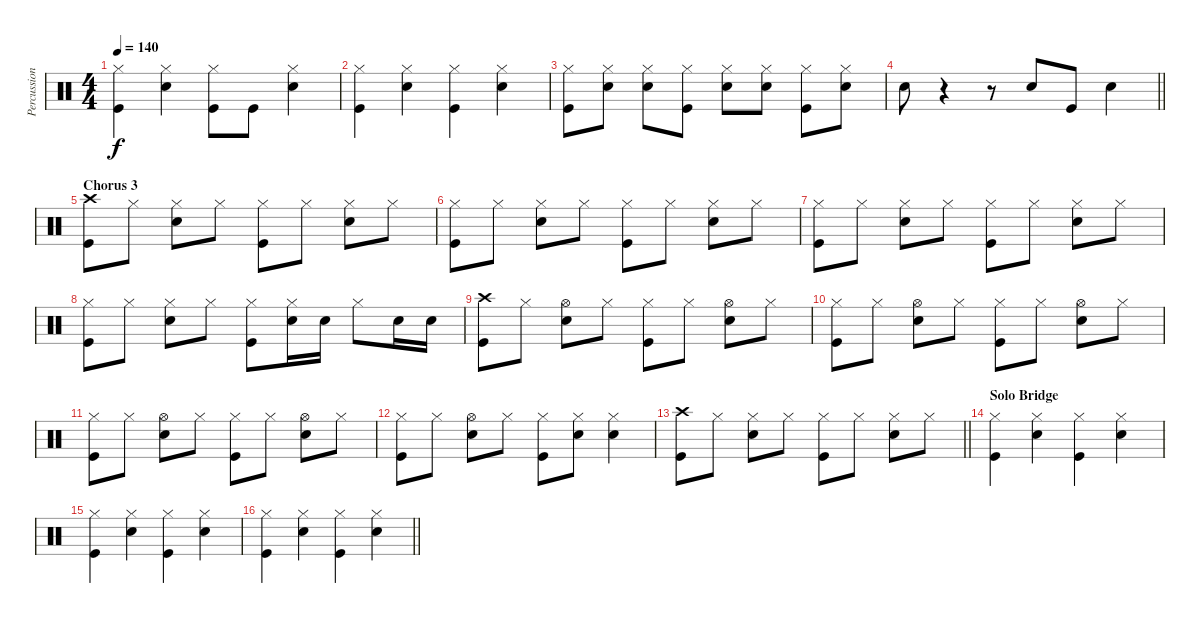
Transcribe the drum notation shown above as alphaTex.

\track ("Percussion" "Percussion") {instrument percussion}
\staff {score}
\articulation defaults
\ts (4 4)
\tempo 140
\clef neutral
\ks c
("Kick (hit)" "Hi-Hat (closed)").4{dy f} ("Snare (hit) 2" "Hi-Hat (closed)").4 ("Kick (hit)" "Hi-Hat (closed)").8 "Kick (hit)".8 ("Snare (hit) 2" "Hi-Hat (closed)").4 |
("Kick (hit)" "Hi-Hat (closed)").4 ("Snare (hit) 2" "Hi-Hat (closed)").4 ("Kick (hit)" "Hi-Hat (closed)").4 ("Snare (hit) 2" "Hi-Hat (closed)").4 |
("Kick (hit)" "Hi-Hat (closed)").8 ("Snare (hit) 2" "Hi-Hat (closed)").8 ("Hi-Hat (closed)" "Snare (hit) 2").8 ("Hi-Hat (closed)" "Kick (hit)").8 ("Hi-Hat (closed)" "Snare (hit) 2").8 ("Hi-Hat (closed)" "Snare (hit) 2").8 ("Hi-Hat (closed)" "Kick (hit)").8 ("Hi-Hat (closed)" "Snare (hit) 2").8 |
\barLineRight lightlight "Snare (hit) 2".8
r.4 r.8 "Snare (hit) 2".8 "Kick (hit)".8 "Snare (hit) 2".4 |
\section ("" "Chorus 3")
("Crash high (hit)" "Kick (hit)").8 "Hi-Hat (closed)".8 ("Snare (hit) 2" "Hi-Hat (closed)").8 "Hi-Hat (closed)".8 ("Kick (hit)" "Hi-Hat (closed)").8 "Hi-Hat (closed)".8 ("Hi-Hat (closed)" "Snare (hit) 2").8 "Hi-Hat (closed)".8 |
("Hi-Hat (closed)" "Kick (hit)").8 "Hi-Hat (closed)".8 ("Snare (hit) 2" "Hi-Hat (closed)").8 "Hi-Hat (closed)".8 ("Kick (hit)" "Hi-Hat (closed)").8 "Hi-Hat (closed)".8 ("Hi-Hat (closed)" "Snare (hit) 2").8 "Hi-Hat (closed)".8 |
("Hi-Hat (closed)" "Kick (hit)").8 "Hi-Hat (closed)".8 ("Snare (hit) 2" "Hi-Hat (closed)").8 "Hi-Hat (closed)".8 ("Kick (hit)" "Hi-Hat (closed)").8 "Hi-Hat (closed)".8 ("Hi-Hat (closed)" "Snare (hit) 2").8 "Hi-Hat (closed)".8 |
("Hi-Hat (closed)" "Kick (hit)").8 "Hi-Hat (closed)".8 ("Snare (hit) 2" "Hi-Hat (closed)").8 "Hi-Hat (closed)".8 ("Kick (hit)" "Hi-Hat (closed)").8 ("Hi-Hat (closed)" "Snare (hit) 2").16 "Snare (hit) 2".16 "Hi-Hat (closed)".8 "Snare (hit) 2".16 "Snare (hit) 2".16 |
("Crash high (hit)" "Kick (hit)").8 "Hi-Hat (closed)".8 ("Snare (hit) 2" "Hi-Hat (open)").8 "Hi-Hat (closed)".8 ("Kick (hit)" "Hi-Hat (closed)").8 "Hi-Hat (closed)".8 ("Hi-Hat (open)" "Snare (hit) 2").8 "Hi-Hat (closed)".8 |
("Hi-Hat (closed)" "Kick (hit)").8 "Hi-Hat (closed)".8 ("Snare (hit) 2" "Hi-Hat (open)").8 "Hi-Hat (closed)".8 ("Kick (hit)" "Hi-Hat (closed)").8 "Hi-Hat (closed)".8 ("Hi-Hat (open)" "Snare (hit) 2").8 "Hi-Hat (closed)".8 |
("Hi-Hat (closed)" "Kick (hit)").8 "Hi-Hat (closed)".8 ("Snare (hit) 2" "Hi-Hat (open)").8 "Hi-Hat (closed)".8 ("Kick (hit)" "Hi-Hat (closed)").8 "Hi-Hat (closed)".8 ("Hi-Hat (open)" "Snare (hit) 2").8 "Hi-Hat (closed)".8 |
("Hi-Hat (closed)" "Kick (hit)").8 "Hi-Hat (closed)".8 ("Snare (hit) 2" "Hi-Hat (open)").8 "Hi-Hat (closed)".8 ("Kick (hit)" "Hi-Hat (closed)").8 ("Snare (hit) 2" "Hi-Hat (closed)").8 ("Snare (hit) 2" "Hi-Hat (closed)").4 |
\barLineRight lightlight
("Crash high (hit)" "Kick (hit)").8 "Hi-Hat (closed)".8 ("Snare (hit) 2" "Hi-Hat (closed)").8 "Hi-Hat (closed)".8 ("Kick (hit)" "Hi-Hat (closed)").8 "Hi-Hat (closed)".8 ("Hi-Hat (closed)" "Snare (hit) 2").8 "Hi-Hat (closed)".8 |
\section ("" "Solo Bridge")
("Kick (hit)" "Hi-Hat (closed)").4 ("Snare (hit) 2" "Hi-Hat (closed)").4 ("Kick (hit)" "Hi-Hat (closed)").4 ("Snare (hit) 2" "Hi-Hat (closed)").4 |
("Kick (hit)" "Hi-Hat (closed)").4 ("Snare (hit) 2" "Hi-Hat (closed)").4 ("Kick (hit)" "Hi-Hat (closed)").4 ("Snare (hit) 2" "Hi-Hat (closed)").4 |
\barLineRight lightlight
("Kick (hit)" "Hi-Hat (closed)").4 ("Snare (hit) 2" "Hi-Hat (closed)").4 ("Kick (hit)" "Hi-Hat (closed)").4 ("Snare (hit) 2" "Hi-Hat (closed)").4
